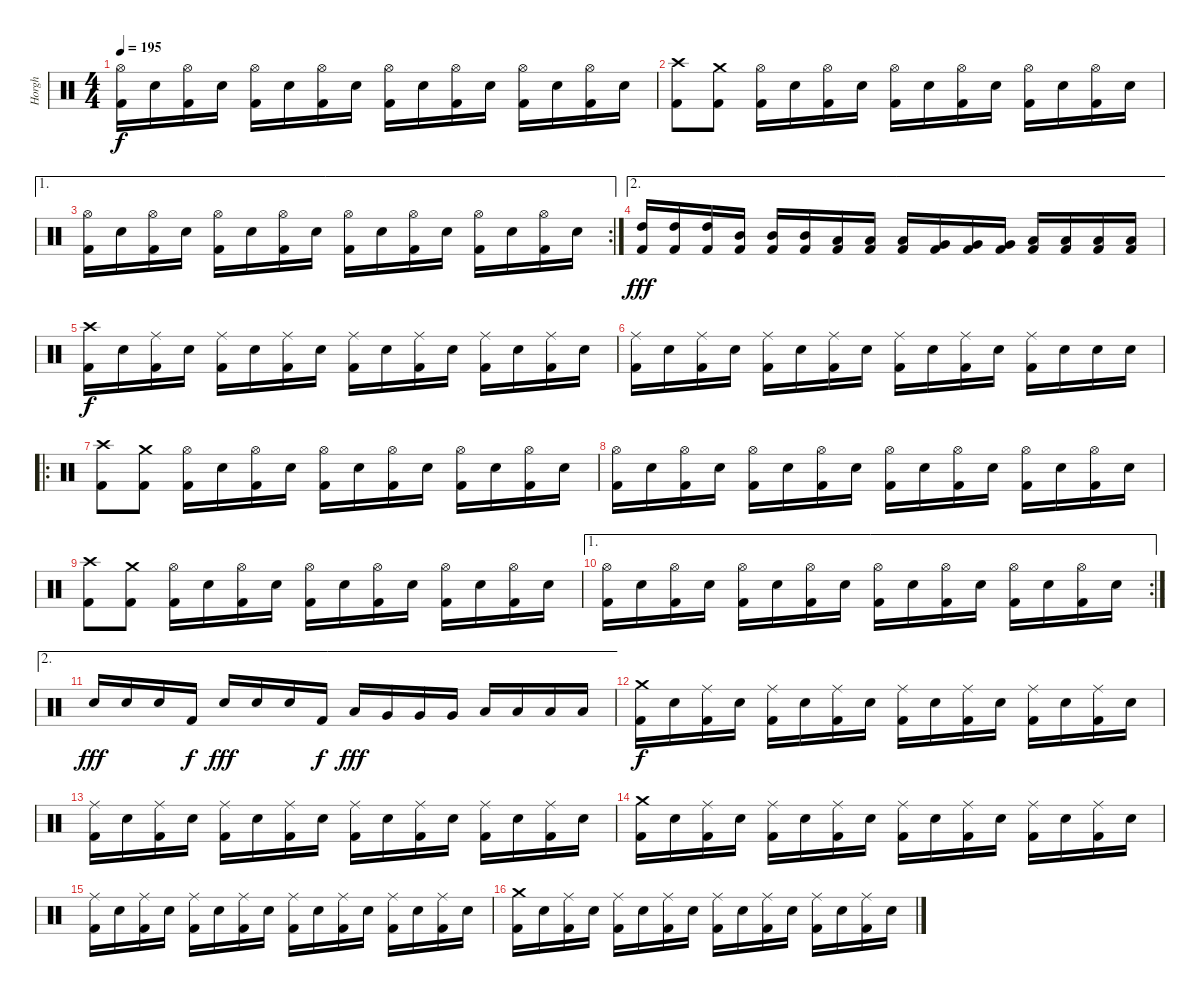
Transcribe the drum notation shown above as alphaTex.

\track ("Horgh" "Horgh") {instrument percussion}
\staff {score}
\articulation defaults
\ts (4 4)
\tempo 195
\clef neutral
\ks c
("Hi-Hat (open)" "Kick (hit) 2").16{dy f} "Electric Snare (hit)".16 ("Hi-Hat (open)" "Kick (hit) 2").16 "Electric Snare (hit)".16 ("Hi-Hat (open)" "Kick (hit) 2").16 "Electric Snare (hit)".16 ("Hi-Hat (open)" "Kick (hit) 2").16 "Electric Snare (hit)".16 ("Hi-Hat (open)" "Kick (hit) 2").16 "Electric Snare (hit)".16 ("Hi-Hat (open)" "Kick (hit) 2").16 "Electric Snare (hit)".16 ("Hi-Hat (open)" "Kick (hit) 2").16 "Electric Snare (hit)".16 ("Hi-Hat (open)" "Kick (hit) 2").16 "Electric Snare (hit)".16 |
("Crash high (hit)" "Kick (hit) 2").8 ("Crash medium (hit)" "Kick (hit) 2").8 ("Hi-Hat (open)" "Kick (hit) 2").16 "Electric Snare (hit)".16 ("Hi-Hat (open)" "Kick (hit) 2").16 "Electric Snare (hit)".16 ("Hi-Hat (open)" "Kick (hit) 2").16 "Electric Snare (hit)".16 ("Hi-Hat (open)" "Kick (hit) 2").16 "Electric Snare (hit)".16 ("Hi-Hat (open)" "Kick (hit) 2").16 "Electric Snare (hit)".16 ("Hi-Hat (open)" "Kick (hit) 2").16 "Electric Snare (hit)".16 |
\ae 1
\rc 2
("Hi-Hat (open)" "Kick (hit) 2").16 "Electric Snare (hit)".16 ("Hi-Hat (open)" "Kick (hit) 2").16 "Electric Snare (hit)".16 ("Hi-Hat (open)" "Kick (hit) 2").16 "Electric Snare (hit)".16 ("Hi-Hat (open)" "Kick (hit) 2").16 "Electric Snare (hit)".16 ("Hi-Hat (open)" "Kick (hit) 2").16 "Electric Snare (hit)".16 ("Hi-Hat (open)" "Kick (hit) 2").16 "Electric Snare (hit)".16 ("Hi-Hat (open)" "Kick (hit) 2").16 "Electric Snare (hit)".16 ("Hi-Hat (open)" "Kick (hit) 2").16 "Electric Snare (hit)".16 |
\ae 2
("High Tom (hit)" "Kick (hit) 2").16{dy fff} ("High Tom (hit)" "Kick (hit) 2").16 ("High Tom (hit)" "Kick (hit) 2").16 ("Mid Tom (hit)" "Kick (hit) 2").16 ("Mid Tom (hit)" "Kick (hit) 2").16 ("Mid Tom (hit)" "Kick (hit) 2").16 ("Low Tom (hit)" "Kick (hit) 2").16 ("Low Tom (hit)" "Kick (hit) 2").16 ("Low Tom (hit)" "Kick (hit) 2").16 ("Very Low Tom (hit)" "Kick (hit) 2").16 ("Very Low Tom (hit)" "Kick (hit) 2").16 ("Very Low Tom (hit)" "Kick (hit) 2").16 ("Low Floor Tom (hit)" "Kick (hit) 2").16 ("Low Floor Tom (hit)" "Kick (hit) 2").16 ("Low Floor Tom (hit)" "Kick (hit) 2").16 ("Low Floor Tom (hit)" "Kick (hit) 2").16 |
("Crash high (hit)" "Kick (hit) 2").16{dy f} "Electric Snare (hit)".16 ("Ride (middle)" "Kick (hit) 2").16 "Electric Snare (hit)".16 ("Ride (middle)" "Kick (hit) 2").16 "Electric Snare (hit)".16 ("Ride (middle)" "Kick (hit) 2").16 "Electric Snare (hit)".16 ("Ride (middle)" "Kick (hit) 2").16 "Electric Snare (hit)".16 ("Ride (middle)" "Kick (hit) 2").16 "Electric Snare (hit)".16 ("Ride (middle)" "Kick (hit) 2").16 "Electric Snare (hit)".16 ("Ride (middle)" "Kick (hit) 2").16 "Electric Snare (hit)".16 |
("Ride (middle)" "Kick (hit) 2").16 "Electric Snare (hit)".16 ("Ride (middle)" "Kick (hit) 2").16 "Electric Snare (hit)".16 ("Ride (middle)" "Kick (hit) 2").16 "Electric Snare (hit)".16 ("Ride (middle)" "Kick (hit) 2").16 "Electric Snare (hit)".16 ("Ride (middle)" "Kick (hit) 2").16 "Electric Snare (hit)".16 ("Ride (middle)" "Kick (hit) 2").16 "Electric Snare (hit)".16 ("Ride (middle)" "Kick (hit) 2").16 "Electric Snare (hit)".16 "Electric Snare (hit)".16 "Electric Snare (hit)".16 |
\ro
("Crash high (hit)" "Kick (hit) 2").8 ("Crash medium (hit)" "Kick (hit) 2").8 ("Hi-Hat (open)" "Kick (hit) 2").16 "Electric Snare (hit)".16 ("Hi-Hat (open)" "Kick (hit) 2").16 "Electric Snare (hit)".16 ("Hi-Hat (open)" "Kick (hit) 2").16 "Electric Snare (hit)".16 ("Hi-Hat (open)" "Kick (hit) 2").16 "Electric Snare (hit)".16 ("Hi-Hat (open)" "Kick (hit) 2").16 "Electric Snare (hit)".16 ("Hi-Hat (open)" "Kick (hit) 2").16 "Electric Snare (hit)".16 |
("Hi-Hat (open)" "Kick (hit) 2").16 "Electric Snare (hit)".16 ("Hi-Hat (open)" "Kick (hit) 2").16 "Electric Snare (hit)".16 ("Hi-Hat (open)" "Kick (hit) 2").16 "Electric Snare (hit)".16 ("Hi-Hat (open)" "Kick (hit) 2").16 "Electric Snare (hit)".16 ("Hi-Hat (open)" "Kick (hit) 2").16 "Electric Snare (hit)".16 ("Hi-Hat (open)" "Kick (hit) 2").16 "Electric Snare (hit)".16 ("Hi-Hat (open)" "Kick (hit) 2").16 "Electric Snare (hit)".16 ("Hi-Hat (open)" "Kick (hit) 2").16 "Electric Snare (hit)".16 |
("Crash high (hit)" "Kick (hit) 2").8 ("Crash medium (hit)" "Kick (hit) 2").8 ("Hi-Hat (open)" "Kick (hit) 2").16 "Electric Snare (hit)".16 ("Hi-Hat (open)" "Kick (hit) 2").16 "Electric Snare (hit)".16 ("Hi-Hat (open)" "Kick (hit) 2").16 "Electric Snare (hit)".16 ("Hi-Hat (open)" "Kick (hit) 2").16 "Electric Snare (hit)".16 ("Hi-Hat (open)" "Kick (hit) 2").16 "Electric Snare (hit)".16 ("Hi-Hat (open)" "Kick (hit) 2").16 "Electric Snare (hit)".16 |
\ae 1
\rc 2
("Hi-Hat (open)" "Kick (hit) 2").16 "Electric Snare (hit)".16 ("Hi-Hat (open)" "Kick (hit) 2").16 "Electric Snare (hit)".16 ("Hi-Hat (open)" "Kick (hit) 2").16 "Electric Snare (hit)".16 ("Hi-Hat (open)" "Kick (hit) 2").16 "Electric Snare (hit)".16 ("Hi-Hat (open)" "Kick (hit) 2").16 "Electric Snare (hit)".16 ("Hi-Hat (open)" "Kick (hit) 2").16 "Electric Snare (hit)".16 ("Hi-Hat (open)" "Kick (hit) 2").16 "Electric Snare (hit)".16 ("Hi-Hat (open)" "Kick (hit) 2").16 "Electric Snare (hit)".16 |
\ae 2 "Electric Snare (hit)".16{dy fff} "Electric Snare (hit)".16 "Electric Snare (hit)".16 "Kick (hit) 2".16{dy f} "Electric Snare (hit)".16{dy fff} "Electric Snare (hit)".16 "Electric Snare (hit)".16 "Kick (hit) 2".16{dy f} "Low Tom (hit)".16{dy fff} "Very Low Tom (hit)".16 "Very Low Tom (hit)".16 "Very Low Tom (hit)".16 "Low Floor Tom (hit)".16 "Low Floor Tom (hit)".16 "Low Floor Tom (hit)".16 "Low Floor Tom (hit)".16
|
("Crash medium (hit)" "Kick (hit) 2").16{dy f} "Electric Snare (hit)".16 ("Ride (middle)" "Kick (hit) 2").16 "Electric Snare (hit)".16 ("Ride (middle)" "Kick (hit) 2").16 "Electric Snare (hit)".16 ("Ride (middle)" "Kick (hit) 2").16 "Electric Snare (hit)".16 ("Ride (middle)" "Kick (hit) 2").16 "Electric Snare (hit)".16 ("Ride (middle)" "Kick (hit) 2").16 "Electric Snare (hit)".16 ("Ride (middle)" "Kick (hit) 2").16 "Electric Snare (hit)".16 ("Ride (middle)" "Kick (hit) 2").16 "Electric Snare (hit)".16 |
("Ride (middle)" "Kick (hit) 2").16 "Electric Snare (hit)".16 ("Ride (middle)" "Kick (hit) 2").16 "Electric Snare (hit)".16 ("Ride (middle)" "Kick (hit) 2").16 "Electric Snare (hit)".16 ("Ride (middle)" "Kick (hit) 2").16 "Electric Snare (hit)".16 ("Ride (middle)" "Kick (hit) 2").16 "Electric Snare (hit)".16 ("Ride (middle)" "Kick (hit) 2").16 "Electric Snare (hit)".16 ("Ride (middle)" "Kick (hit) 2").16 "Electric Snare (hit)".16 ("Ride (middle)" "Kick (hit) 2").16 "Electric Snare (hit)".16 |
("Crash medium (hit)" "Kick (hit) 2").16 "Electric Snare (hit)".16 ("Ride (middle)" "Kick (hit) 2").16 "Electric Snare (hit)".16 ("Ride (middle)" "Kick (hit) 2").16 "Electric Snare (hit)".16 ("Ride (middle)" "Kick (hit) 2").16 "Electric Snare (hit)".16 ("Ride (middle)" "Kick (hit) 2").16 "Electric Snare (hit)".16 ("Ride (middle)" "Kick (hit) 2").16 "Electric Snare (hit)".16 ("Ride (middle)" "Kick (hit) 2").16 "Electric Snare (hit)".16 ("Ride (middle)" "Kick (hit) 2").16 "Electric Snare (hit)".16 |
("Ride (middle)" "Kick (hit) 2").16 "Electric Snare (hit)".16 ("Ride (middle)" "Kick (hit) 2").16 "Electric Snare (hit)".16 ("Ride (middle)" "Kick (hit) 2").16 "Electric Snare (hit)".16 ("Ride (middle)" "Kick (hit) 2").16 "Electric Snare (hit)".16 ("Ride (middle)" "Kick (hit) 2").16 "Electric Snare (hit)".16 ("Ride (middle)" "Kick (hit) 2").16 "Electric Snare (hit)".16 ("Ride (middle)" "Kick (hit) 2").16 "Electric Snare (hit)".16 ("Ride (middle)" "Kick (hit) 2").16 "Electric Snare (hit)".16 |
("Crash medium (hit)" "Kick (hit) 2").16 "Electric Snare (hit)".16 ("Ride (middle)" "Kick (hit) 2").16 "Electric Snare (hit)".16 ("Ride (middle)" "Kick (hit) 2").16 "Electric Snare (hit)".16 ("Ride (middle)" "Kick (hit) 2").16 "Electric Snare (hit)".16 ("Ride (middle)" "Kick (hit) 2").16 "Electric Snare (hit)".16 ("Ride (middle)" "Kick (hit) 2").16 "Electric Snare (hit)".16 ("Ride (middle)" "Kick (hit) 2").16 "Electric Snare (hit)".16 ("Ride (middle)" "Kick (hit) 2").16 "Electric Snare (hit)".16
